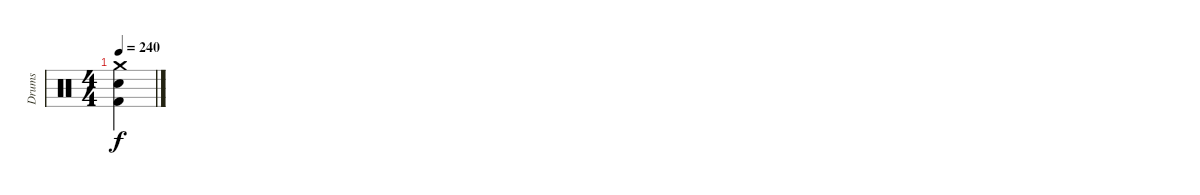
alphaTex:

\track ("Drums" "Drums") {instrument percussion}
\staff {score}
\articulation defaults
\ts (4 4)
\tempo 240
\clef neutral
\ks c
("Crash medium (hit)" "Electric Snare (hit)" "Kick (hit) 2").4{dy f}
